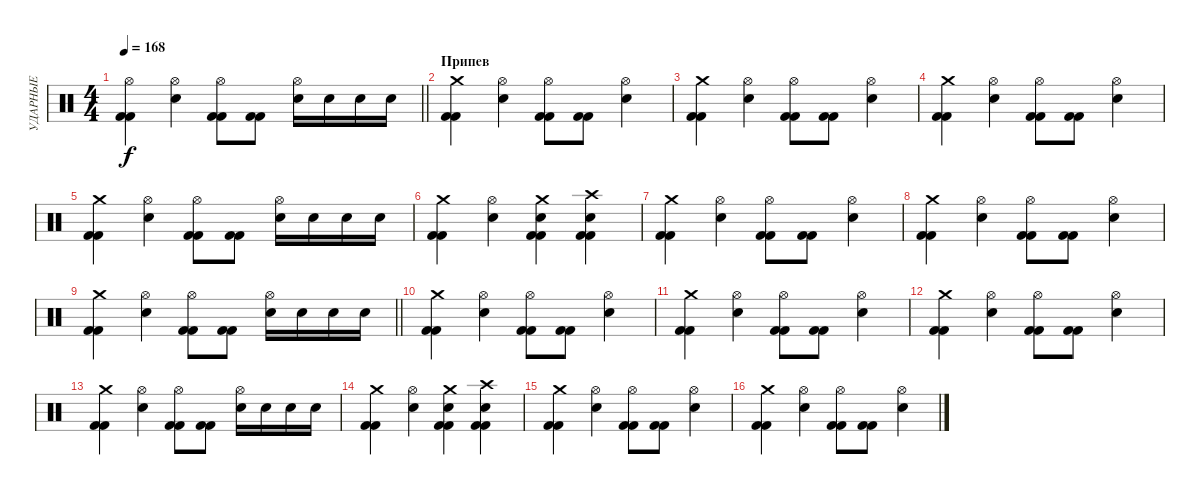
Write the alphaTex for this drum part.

\track ("УДАРНЫЕ" "УДАРНЫЕ") {instrument percussion}
\staff {score}
\articulation defaults
\ts (4 4)
\tempo 168
\clef neutral
\barLineRight lightlight
\ks c
("Hi-Hat (open)" "Kick (hit) 2" "Kick (hit) 2").4{dy f} ("Hi-Hat (open)" "Snare (hit) 2").4 ("Hi-Hat (open)" "Kick (hit) 2" "Kick (hit) 2").8 ("Kick (hit) 2" "Kick (hit) 2").8 ("Hi-Hat (open)" "Snare (hit) 2").16 "Snare (hit) 2".16 "Snare (hit) 2".16 "Snare (hit) 2".16 |
\section ("" "Припев ")
("Crash medium (hit)" "Kick (hit) 2" "Kick (hit) 2").4 ("Hi-Hat (open)" "Snare (hit) 2").4 ("Hi-Hat (open)" "Kick (hit) 2" "Kick (hit) 2").8 ("Kick (hit) 2" "Kick (hit) 2").8 ("Hi-Hat (open)" "Snare (hit) 2").4 |
("Crash medium (hit)" "Kick (hit) 2" "Kick (hit) 2").4 ("Hi-Hat (open)" "Snare (hit) 2").4 ("Hi-Hat (open)" "Kick (hit) 2" "Kick (hit) 2").8 ("Kick (hit) 2" "Kick (hit) 2").8 ("Hi-Hat (open)" "Snare (hit) 2").4 |
("Crash medium (hit)" "Kick (hit) 2" "Kick (hit) 2").4 ("Hi-Hat (open)" "Snare (hit) 2").4 ("Hi-Hat (open)" "Kick (hit) 2" "Kick (hit) 2").8 ("Kick (hit) 2" "Kick (hit) 2").8 ("Hi-Hat (open)" "Snare (hit) 2").4 |
("Crash medium (hit)" "Kick (hit) 2" "Kick (hit) 2").4 ("Hi-Hat (open)" "Snare (hit) 2").4 ("Hi-Hat (open)" "Kick (hit) 2" "Kick (hit) 2").8 ("Kick (hit) 2" "Kick (hit) 2").8 ("Hi-Hat (open)" "Snare (hit) 2").16 "Snare (hit) 2".16 "Snare (hit) 2".16 "Snare (hit) 2".16 |
("Crash medium (hit)" "Kick (hit) 2" "Kick (hit) 2").4 ("Hi-Hat (open)" "Snare (hit) 2").4 ("Crash medium (hit)" "Snare (hit) 2" "Kick (hit) 2" "Kick (hit) 2").4 ("Crash high (hit)" "Snare (hit) 2" "Kick (hit) 2" "Kick (hit) 2").4 |
("Crash medium (hit)" "Kick (hit) 2" "Kick (hit) 2").4 ("Hi-Hat (open)" "Snare (hit) 2").4 ("Hi-Hat (open)" "Kick (hit) 2" "Kick (hit) 2").8 ("Kick (hit) 2" "Kick (hit) 2").8 ("Hi-Hat (open)" "Snare (hit) 2").4 |
("Crash medium (hit)" "Kick (hit) 2" "Kick (hit) 2").4 ("Hi-Hat (open)" "Snare (hit) 2").4 ("Hi-Hat (open)" "Kick (hit) 2" "Kick (hit) 2").8 ("Kick (hit) 2" "Kick (hit) 2").8 ("Hi-Hat (open)" "Snare (hit) 2").4 |
\barLineRight lightlight
("Crash medium (hit)" "Kick (hit) 2" "Kick (hit) 2").4 ("Hi-Hat (open)" "Snare (hit) 2").4 ("Hi-Hat (open)" "Kick (hit) 2" "Kick (hit) 2").8 ("Kick (hit) 2" "Kick (hit) 2").8 ("Hi-Hat (open)" "Snare (hit) 2").16 "Snare (hit) 2".16 "Snare (hit) 2".16 "Snare (hit) 2".16 |
\section ("" "")
("Crash medium (hit)" "Kick (hit) 2" "Kick (hit) 2").4 ("Hi-Hat (open)" "Snare (hit) 2").4 ("Hi-Hat (open)" "Kick (hit) 2" "Kick (hit) 2").8 ("Kick (hit) 2" "Kick (hit) 2").8 ("Hi-Hat (open)" "Snare (hit) 2").4 |
("Crash medium (hit)" "Kick (hit) 2" "Kick (hit) 2").4 ("Hi-Hat (open)" "Snare (hit) 2").4 ("Hi-Hat (open)" "Kick (hit) 2" "Kick (hit) 2").8 ("Kick (hit) 2" "Kick (hit) 2").8 ("Hi-Hat (open)" "Snare (hit) 2").4 |
("Crash medium (hit)" "Kick (hit) 2" "Kick (hit) 2").4 ("Hi-Hat (open)" "Snare (hit) 2").4 ("Hi-Hat (open)" "Kick (hit) 2" "Kick (hit) 2").8 ("Kick (hit) 2" "Kick (hit) 2").8 ("Hi-Hat (open)" "Snare (hit) 2").4 |
("Crash medium (hit)" "Kick (hit) 2" "Kick (hit) 2").4 ("Hi-Hat (open)" "Snare (hit) 2").4 ("Hi-Hat (open)" "Kick (hit) 2" "Kick (hit) 2").8 ("Kick (hit) 2" "Kick (hit) 2").8 ("Hi-Hat (open)" "Snare (hit) 2").16 "Snare (hit) 2".16 "Snare (hit) 2".16 "Snare (hit) 2".16 |
("Crash medium (hit)" "Kick (hit) 2" "Kick (hit) 2").4 ("Hi-Hat (open)" "Snare (hit) 2").4 ("Crash medium (hit)" "Snare (hit) 2" "Kick (hit) 2" "Kick (hit) 2").4 ("Crash high (hit)" "Snare (hit) 2" "Kick (hit) 2" "Kick (hit) 2").4 |
("Crash medium (hit)" "Kick (hit) 2" "Kick (hit) 2").4 ("Hi-Hat (open)" "Snare (hit) 2").4 ("Hi-Hat (open)" "Kick (hit) 2" "Kick (hit) 2").8 ("Kick (hit) 2" "Kick (hit) 2").8 ("Hi-Hat (open)" "Snare (hit) 2").4 |
("Crash medium (hit)" "Kick (hit) 2" "Kick (hit) 2").4 ("Hi-Hat (open)" "Snare (hit) 2").4 ("Hi-Hat (open)" "Kick (hit) 2" "Kick (hit) 2").8 ("Kick (hit) 2" "Kick (hit) 2").8 ("Hi-Hat (open)" "Snare (hit) 2").4
